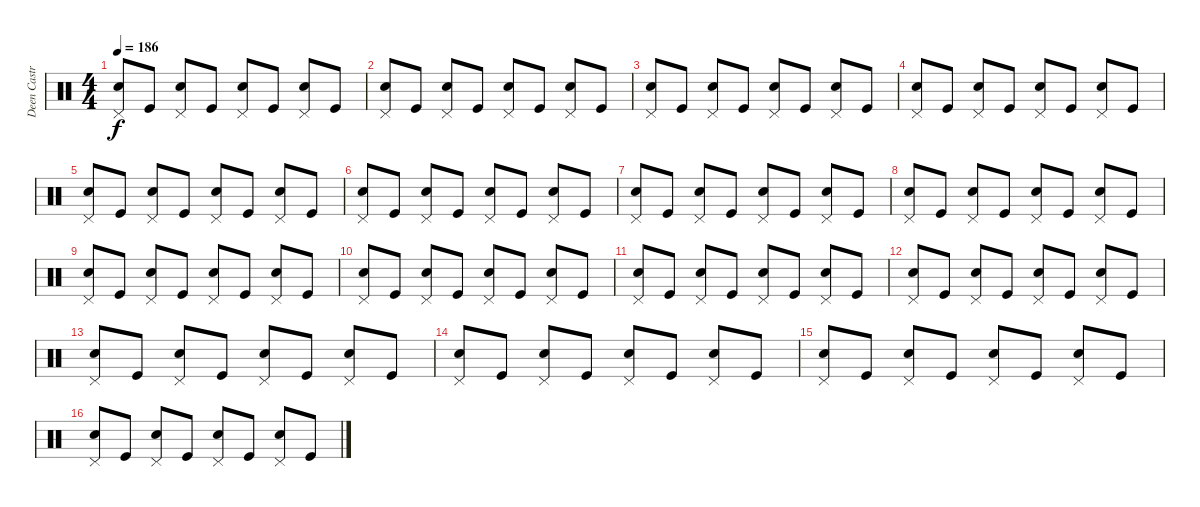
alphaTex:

\track ("Deen Castronovo" "Deen Castr") {instrument percussion}
\staff {score}
\articulation defaults
\ts (4 4)
\tempo 186
\clef neutral
\ks c
("Pedal Hi-Hat (hit)" "Snare (hit) 2").8{dy f} "Kick (hit)".8 ("Pedal Hi-Hat (hit)" "Snare (hit) 2").8 "Kick (hit)".8 ("Pedal Hi-Hat (hit)" "Snare (hit) 2").8 "Kick (hit)".8 ("Pedal Hi-Hat (hit)" "Snare (hit) 2").8 "Kick (hit)".8 |
("Pedal Hi-Hat (hit)" "Snare (hit) 2").8 "Kick (hit)".8 ("Pedal Hi-Hat (hit)" "Snare (hit) 2").8 "Kick (hit)".8 ("Pedal Hi-Hat (hit)" "Snare (hit) 2").8 "Kick (hit)".8 ("Pedal Hi-Hat (hit)" "Snare (hit) 2").8 "Kick (hit)".8 |
("Pedal Hi-Hat (hit)" "Snare (hit) 2").8 "Kick (hit)".8 ("Pedal Hi-Hat (hit)" "Snare (hit) 2").8 "Kick (hit)".8 ("Pedal Hi-Hat (hit)" "Snare (hit) 2").8 "Kick (hit)".8 ("Pedal Hi-Hat (hit)" "Snare (hit) 2").8 "Kick (hit)".8 |
("Pedal Hi-Hat (hit)" "Snare (hit) 2").8 "Kick (hit)".8 ("Pedal Hi-Hat (hit)" "Snare (hit) 2").8 "Kick (hit)".8 ("Pedal Hi-Hat (hit)" "Snare (hit) 2").8 "Kick (hit)".8 ("Pedal Hi-Hat (hit)" "Snare (hit) 2").8 "Kick (hit)".8 |
("Pedal Hi-Hat (hit)" "Snare (hit) 2").8 "Kick (hit)".8 ("Pedal Hi-Hat (hit)" "Snare (hit) 2").8 "Kick (hit)".8 ("Pedal Hi-Hat (hit)" "Snare (hit) 2").8 "Kick (hit)".8 ("Pedal Hi-Hat (hit)" "Snare (hit) 2").8 "Kick (hit)".8 |
("Pedal Hi-Hat (hit)" "Snare (hit) 2").8 "Kick (hit)".8 ("Pedal Hi-Hat (hit)" "Snare (hit) 2").8 "Kick (hit)".8 ("Pedal Hi-Hat (hit)" "Snare (hit) 2").8 "Kick (hit)".8 ("Pedal Hi-Hat (hit)" "Snare (hit) 2").8 "Kick (hit)".8 |
("Pedal Hi-Hat (hit)" "Snare (hit) 2").8 "Kick (hit)".8 ("Pedal Hi-Hat (hit)" "Snare (hit) 2").8 "Kick (hit)".8 ("Pedal Hi-Hat (hit)" "Snare (hit) 2").8 "Kick (hit)".8 ("Pedal Hi-Hat (hit)" "Snare (hit) 2").8 "Kick (hit)".8 |
("Pedal Hi-Hat (hit)" "Snare (hit) 2").8 "Kick (hit)".8 ("Pedal Hi-Hat (hit)" "Snare (hit) 2").8 "Kick (hit)".8 ("Pedal Hi-Hat (hit)" "Snare (hit) 2").8 "Kick (hit)".8 ("Pedal Hi-Hat (hit)" "Snare (hit) 2").8 "Kick (hit)".8 |
("Pedal Hi-Hat (hit)" "Snare (hit) 2").8 "Kick (hit)".8 ("Pedal Hi-Hat (hit)" "Snare (hit) 2").8 "Kick (hit)".8 ("Pedal Hi-Hat (hit)" "Snare (hit) 2").8 "Kick (hit)".8 ("Pedal Hi-Hat (hit)" "Snare (hit) 2").8 "Kick (hit)".8 |
("Pedal Hi-Hat (hit)" "Snare (hit) 2").8 "Kick (hit)".8 ("Pedal Hi-Hat (hit)" "Snare (hit) 2").8 "Kick (hit)".8 ("Pedal Hi-Hat (hit)" "Snare (hit) 2").8 "Kick (hit)".8 ("Pedal Hi-Hat (hit)" "Snare (hit) 2").8 "Kick (hit)".8 |
("Pedal Hi-Hat (hit)" "Snare (hit) 2").8 "Kick (hit)".8 ("Pedal Hi-Hat (hit)" "Snare (hit) 2").8 "Kick (hit)".8 ("Pedal Hi-Hat (hit)" "Snare (hit) 2").8 "Kick (hit)".8 ("Pedal Hi-Hat (hit)" "Snare (hit) 2").8 "Kick (hit)".8 |
("Pedal Hi-Hat (hit)" "Snare (hit) 2").8 "Kick (hit)".8 ("Pedal Hi-Hat (hit)" "Snare (hit) 2").8 "Kick (hit)".8 ("Pedal Hi-Hat (hit)" "Snare (hit) 2").8 "Kick (hit)".8 ("Pedal Hi-Hat (hit)" "Snare (hit) 2").8 "Kick (hit)".8 |
("Pedal Hi-Hat (hit)" "Snare (hit) 2").8 "Kick (hit)".8 ("Pedal Hi-Hat (hit)" "Snare (hit) 2").8 "Kick (hit)".8 ("Pedal Hi-Hat (hit)" "Snare (hit) 2").8 "Kick (hit)".8 ("Pedal Hi-Hat (hit)" "Snare (hit) 2").8 "Kick (hit)".8 |
("Pedal Hi-Hat (hit)" "Snare (hit) 2").8 "Kick (hit)".8 ("Pedal Hi-Hat (hit)" "Snare (hit) 2").8 "Kick (hit)".8 ("Pedal Hi-Hat (hit)" "Snare (hit) 2").8 "Kick (hit)".8 ("Pedal Hi-Hat (hit)" "Snare (hit) 2").8 "Kick (hit)".8 |
("Pedal Hi-Hat (hit)" "Snare (hit) 2").8 "Kick (hit)".8 ("Pedal Hi-Hat (hit)" "Snare (hit) 2").8 "Kick (hit)".8 ("Pedal Hi-Hat (hit)" "Snare (hit) 2").8 "Kick (hit)".8 ("Pedal Hi-Hat (hit)" "Snare (hit) 2").8 "Kick (hit)".8 |
("Pedal Hi-Hat (hit)" "Snare (hit) 2").8 "Kick (hit)".8 ("Pedal Hi-Hat (hit)" "Snare (hit) 2").8 "Kick (hit)".8 ("Pedal Hi-Hat (hit)" "Snare (hit) 2").8 "Kick (hit)".8 ("Pedal Hi-Hat (hit)" "Snare (hit) 2").8 "Kick (hit)".8
